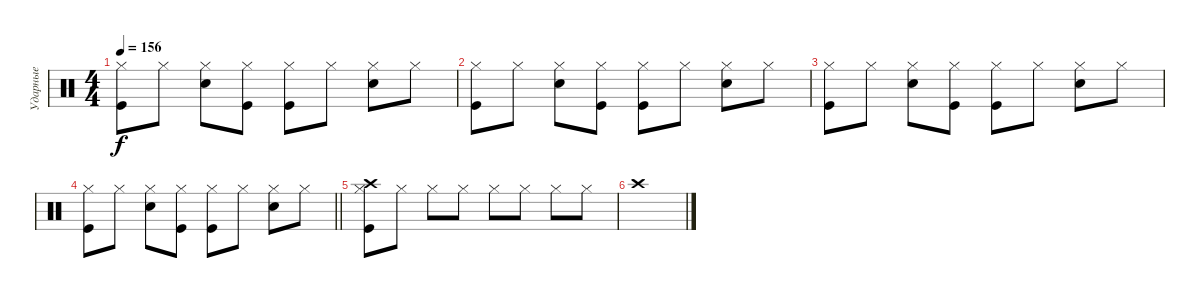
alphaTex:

\track ("Ударные" "Ударные") {instrument percussion}
\staff {score}
\articulation defaults
\ts (4 4)
\tempo 156
\clef neutral
\ks c
("Hi-Hat (closed)" "Kick (hit)").8{dy f} "Hi-Hat (closed)".8 ("Hi-Hat (closed)" "Snare (hit) 2").8 ("Hi-Hat (closed)" "Kick (hit)").8 ("Hi-Hat (closed)" "Kick (hit)").8 "Hi-Hat (closed)".8 ("Hi-Hat (closed)" "Snare (hit) 2").8 "Hi-Hat (closed)".8 |
("Hi-Hat (closed)" "Kick (hit)").8 "Hi-Hat (closed)".8 ("Hi-Hat (closed)" "Snare (hit) 2").8 ("Hi-Hat (closed)" "Kick (hit)").8 ("Hi-Hat (closed)" "Kick (hit)").8 "Hi-Hat (closed)".8 ("Hi-Hat (closed)" "Snare (hit) 2").8 "Hi-Hat (closed)".8 |
("Hi-Hat (closed)" "Kick (hit)").8 "Hi-Hat (closed)".8 ("Hi-Hat (closed)" "Snare (hit) 2").8 ("Hi-Hat (closed)" "Kick (hit)").8 ("Hi-Hat (closed)" "Kick (hit)").8 "Hi-Hat (closed)".8 ("Hi-Hat (closed)" "Snare (hit) 2").8 "Hi-Hat (closed)".8 |
\barLineRight lightlight
("Hi-Hat (closed)" "Kick (hit)").8 "Hi-Hat (closed)".8 ("Hi-Hat (closed)" "Snare (hit) 2").8 ("Hi-Hat (closed)" "Kick (hit)").8 ("Hi-Hat (closed)" "Kick (hit)").8 "Hi-Hat (closed)".8 ("Hi-Hat (closed)" "Snare (hit) 2").8 "Hi-Hat (closed)".8 |
("Hi-Hat (closed)" "Kick (hit)" "Crash high (hit)").8 "Hi-Hat (closed)".8 "Hi-Hat (closed)".8 "Hi-Hat (closed)".8 "Hi-Hat (closed)".8 "Hi-Hat (closed)".8 "Hi-Hat (closed)".8 "Hi-Hat (closed)".8 |
"Crash high (hit)".1
